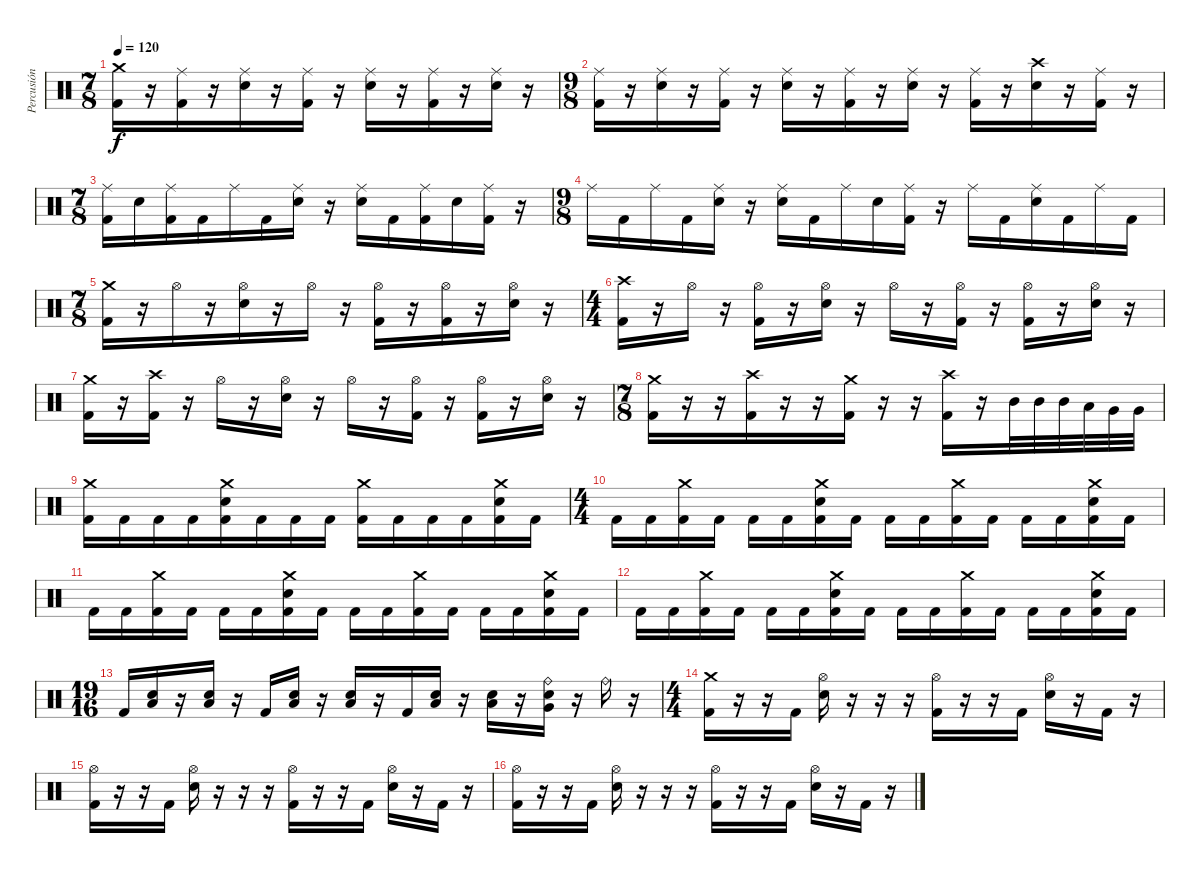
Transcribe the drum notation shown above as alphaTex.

\track ("Percusión" "Percusión") {instrument percussion}
\staff {score}
\articulation defaults
\ts (7 8)
\tempo 120
\clef neutral
\ks c
("Crash medium (hit)" "Kick (hit) 2").16{dy f} r.16 ("Ride (middle)" "Kick (hit) 2").16 r.16 ("Ride (middle)" "Electric Snare (hit)").16 r.16 ("Ride (middle)" "Kick (hit) 2").16 r.16 ("Ride (middle)" "Electric Snare (hit)").16 r.16 ("Ride (middle)" "Kick (hit) 2").16 r.16 ("Ride (middle)" "Electric Snare (hit)").16 r.16 |
\ts (9 8)
("Ride (middle)" "Kick (hit) 2").16 r.16 ("Ride (middle)" "Electric Snare (hit)").16 r.16 ("Ride (middle)" "Kick (hit) 2").16 r.16 ("Ride (middle)" "Electric Snare (hit)").16 r.16 ("Ride (middle)" "Kick (hit) 2").16 r.16 ("Ride (middle)" "Electric Snare (hit)").16 r.16 ("Ride (middle)" "Kick (hit) 2").16 r.16 ("Crash high (hit)" "Electric Snare (hit)").16 r.16 ("Ride (middle)" "Kick (hit) 2").16 r.16 |
\ts (7 8)
("Ride (middle)" "Kick (hit) 2").16 "Electric Snare (hit)".16 ("Ride (middle)" "Kick (hit) 2").16 "Kick (hit) 2".16 "Ride (middle)".16 "Kick (hit) 2".16 ("Ride (middle)" "Electric Snare (hit)").16 r.16 ("Ride (middle)" "Electric Snare (hit)").16 "Kick (hit) 2".16 ("Ride (middle)" "Kick (hit) 2").16 "Electric Snare (hit)".16 ("Ride (middle)" "Kick (hit) 2").16 r.16 |
\ts (9 8)
"Ride (middle)".16 "Kick (hit) 2".16 "Ride (middle)".16 "Kick (hit) 2".16 ("Ride (middle)" "Electric Snare (hit)").16 r.16 ("Ride (middle)" "Electric Snare (hit)").16 "Kick (hit) 2".16 "Ride (middle)".16 "Electric Snare (hit)".16 ("Ride (middle)" "Kick (hit) 2").16 r.16 "Ride (middle)".16 "Kick (hit) 2".16 ("Ride (middle)" "Electric Snare (hit)").16 "Kick (hit) 2".16 "Ride (middle)".16 "Kick (hit) 2".16 |
\ts (7 8)
("Crash medium (hit)" "Kick (hit) 2").16 r.16 "Hi-Hat (open)".16 r.16 ("Hi-Hat (open)" "Electric Snare (hit)").16 r.16 "Hi-Hat (open)".16 r.16 ("Hi-Hat (open)" "Kick (hit) 2").16 r.16 ("Hi-Hat (open)" "Kick (hit) 2").16 r.16 ("Hi-Hat (open)" "Electric Snare (hit)").16 r.16 |
\ts (4 4)
("Crash high (hit)" "Kick (hit) 2").16 r.16 "Hi-Hat (open)".16 r.16 ("Hi-Hat (open)" "Kick (hit) 2").16 r.16 ("Hi-Hat (open)" "Electric Snare (hit)").16 r.16 "Hi-Hat (open)".16 r.16 ("Hi-Hat (open)" "Kick (hit) 2").16 r.16 ("Hi-Hat (open)" "Kick (hit) 2").16 r.16 ("Hi-Hat (open)" "Electric Snare (hit)").16 r.16 |
("Crash medium (hit)" "Kick (hit) 2").16 r.16 ("Crash high (hit)" "Kick (hit) 2").16 r.16 "Hi-Hat (open)".16 r.16 ("Hi-Hat (open)" "Electric Snare (hit)").16 r.16 "Hi-Hat (open)".16 r.16 ("Hi-Hat (open)" "Kick (hit) 2").16 r.16 ("Hi-Hat (open)" "Kick (hit) 2").16 r.16 ("Hi-Hat (open)" "Electric Snare (hit)").16 r.16 |
\ts (7 8)
("Crash medium (hit)" "Kick (hit) 2").16 r.16 r.16 ("Crash high (hit)" "Kick (hit) 2").16 r.16 r.16 ("Crash medium (hit)" "Kick (hit) 2").16 r.16 r.16 ("Crash high (hit)" "Kick (hit) 2").16 r.16 "Mid Tom (hit)".32 "Mid Tom (hit)".32 "Mid Tom (hit)".32 "Low Tom (hit)".32 "Very Low Tom (hit)".32 "Very Low Tom (hit)".32 |
("Crash medium (hit)" "Kick (hit) 2").16 "Kick (hit) 2".16 "Kick (hit) 2".16 "Kick (hit) 2".16 ("Crash medium (hit)" "Electric Snare (hit)" "Kick (hit) 2").16 "Kick (hit) 2".16 "Kick (hit) 2".16 "Kick (hit) 2".16 ("Crash medium (hit)" "Kick (hit) 2").16 "Kick (hit) 2".16 "Kick (hit) 2".16 "Kick (hit) 2".16 ("Crash medium (hit)" "Electric Snare (hit)" "Kick (hit) 2").16 "Kick (hit) 2".16 |
\ts (4 4)
"Kick (hit) 2".16 "Kick (hit) 2".16 ("Crash medium (hit)" "Kick (hit) 2").16 "Kick (hit) 2".16 "Kick (hit) 2".16 "Kick (hit) 2".16 ("Crash medium (hit)" "Electric Snare (hit)" "Kick (hit) 2").16 "Kick (hit) 2".16 "Kick (hit) 2".16 "Kick (hit) 2".16 ("Crash medium (hit)" "Kick (hit) 2").16 "Kick (hit) 2".16 "Kick (hit) 2".16 "Kick (hit) 2".16 ("Crash medium (hit)" "Electric Snare (hit)" "Kick (hit) 2").16 "Kick (hit) 2".16 |
"Kick (hit) 2".16 "Kick (hit) 2".16 ("Crash medium (hit)" "Kick (hit) 2").16 "Kick (hit) 2".16 "Kick (hit) 2".16 "Kick (hit) 2".16 ("Crash medium (hit)" "Electric Snare (hit)" "Kick (hit) 2").16 "Kick (hit) 2".16 "Kick (hit) 2".16 "Kick (hit) 2".16 ("Crash medium (hit)" "Kick (hit) 2").16 "Kick (hit) 2".16 "Kick (hit) 2".16 "Kick (hit) 2".16 ("Crash medium (hit)" "Electric Snare (hit)" "Kick (hit) 2").16 "Kick (hit) 2".16 |
"Kick (hit) 2".16 "Kick (hit) 2".16 ("Crash medium (hit)" "Kick (hit) 2").16 "Kick (hit) 2".16 "Kick (hit) 2".16 "Kick (hit) 2".16 ("Crash medium (hit)" "Electric Snare (hit)" "Kick (hit) 2").16 "Kick (hit) 2".16 "Kick (hit) 2".16 "Kick (hit) 2".16 ("Crash medium (hit)" "Kick (hit) 2").16 "Kick (hit) 2".16 "Kick (hit) 2".16 "Kick (hit) 2".16 ("Crash medium (hit)" "Electric Snare (hit)" "Kick (hit) 2").16 "Kick (hit) 2".16 |
\ts (19 16)
"Kick (hit) 2".16 ("Low Floor Tom (hit)" "Electric Snare (hit)").16 r.16 ("Low Floor Tom (hit)" "Electric Snare (hit)").16 r.16 "Kick (hit) 2".16 ("Low Floor Tom (hit)" "Electric Snare (hit)").16 r.16 ("Low Floor Tom (hit)" "Electric Snare (hit)").16 r.16 "Kick (hit) 2".16 ("Low Floor Tom (hit)" "Electric Snare (hit)").16 r.16 ("Low Floor Tom (hit)" "Electric Snare (hit)").16 r.16 ("Ride (bell)" "Very Low Tom (hit)" "Electric Snare (hit)").16 r.16 "Ride (bell)".16 r.16 |
\ts (4 4)
("Crash medium (hit)" "Kick (hit) 2").16 r.16 r.16 "Kick (hit) 2".16 ("Hi-Hat (open)" "Electric Snare (hit)").16 r.16 r.16 r.16 ("Hi-Hat (open)" "Kick (hit) 2").16 r.16 r.16 "Kick (hit) 2".16 ("Hi-Hat (open)" "Electric Snare (hit)").16 r.16 "Kick (hit) 2".16 r.16 |
("Hi-Hat (open)" "Kick (hit) 2").16 r.16 r.16 "Kick (hit) 2".16 ("Hi-Hat (open)" "Electric Snare (hit)").16 r.16 r.16 r.16 ("Hi-Hat (open)" "Kick (hit) 2").16 r.16 r.16 "Kick (hit) 2".16 ("Hi-Hat (open)" "Electric Snare (hit)").16 r.16 "Kick (hit) 2".16 r.16 |
("Hi-Hat (open)" "Kick (hit) 2").16 r.16 r.16 "Kick (hit) 2".16 ("Hi-Hat (open)" "Electric Snare (hit)").16 r.16 r.16 r.16 ("Hi-Hat (open)" "Kick (hit) 2").16 r.16 r.16 "Kick (hit) 2".16 ("Hi-Hat (open)" "Electric Snare (hit)").16 r.16 "Kick (hit) 2".16 r.16
